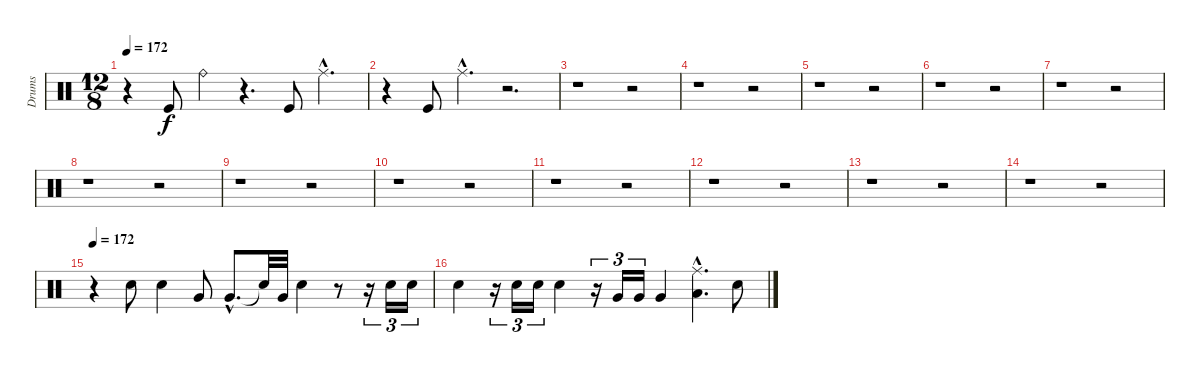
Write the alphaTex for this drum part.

\track ("Drums" "Drums") {instrument percussion}
\staff {score}
\articulation defaults
\ts (12 8)
\tempo 172
\clef neutral
\ks c
r.4{dy f} "Kick (hit)".8{balance 4} "Ride (bell)".4 r.4{d} "Kick (hit)".8 "Ride (middle)"{hac}.4{d} |
r.4 "Kick (hit)".8 "Ride (middle)"{hac}.4{d} r.2{d} |
r.1 r.2 |
r.1 r.2 |
r.1 r.2 |
r.1 r.2 |
r.1 r.2 |
r.1 r.2 |
r.1 r.2 |
r.1 r.2 |
r.1 r.2 |
r.1 r.2 |
r.1 r.2 |
r.1 r.2 |
\tempo 172
r.4{balance 8} "Electric Snare (hit)".8 "Electric Snare (hit)".4 "Very Low Tom (hit)".8 "Very Low Tom (hit)"{hac}.8{d} "Snare (hit)"{t}.32 "Very Low Tom (hit)".32 "Electric Snare (hit)".4 r.8 r.16{tu (3 2)} "Electric Snare (hit)".16{tu (3 2)} "Electric Snare (hit)".16{tu (3 2)} |
"Electric Snare (hit)".4 r.16{tu (3 2)} "Snare (hit) 2".16{tu (3 2)} "Snare (hit) 2".16{tu (3 2)} "Snare (hit) 2".4 r.16{tu (3 2)} "Very Low Tom (hit)".16{tu (3 2)} "Very Low Tom (hit)".16{tu (3 2)} "Very Low Tom (hit)".4 ("Ride (middle)"{hac} "Low Floor Tom (hit)"{hac}).4{d} "Electric Snare (hit)".8
